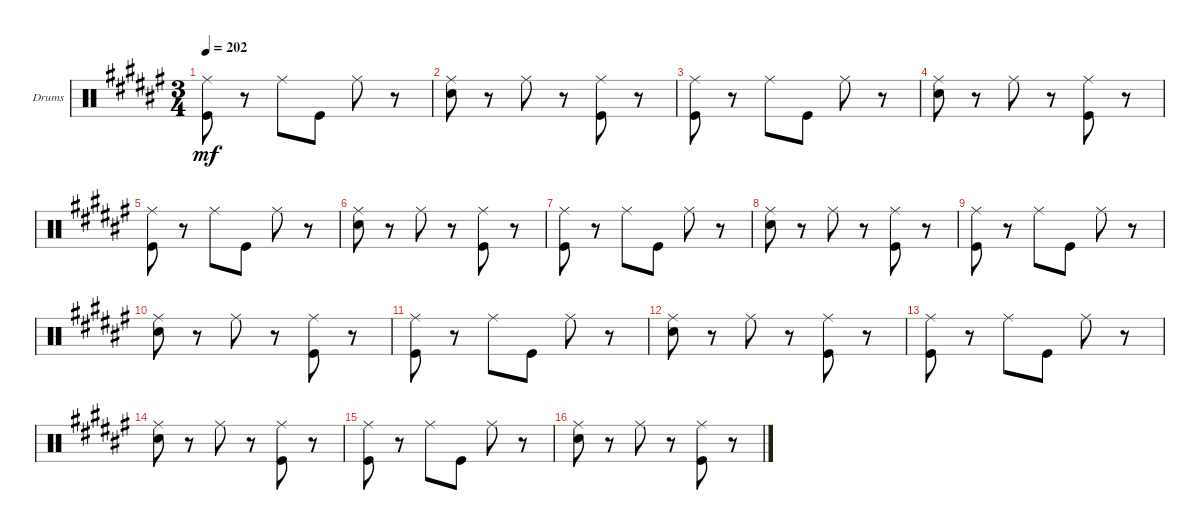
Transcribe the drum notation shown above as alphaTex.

\defaultSystemsLayout 4
\bracketExtendMode groupsimilarinstruments
\firstSystemTrackNameOrientation horizontal
\otherSystemsTrackNameOrientation horizontal
\track ("Drumkit" "Drums") {instrument percussion}
\staff {score}
\articulation defaults
\ts (3 4)
\tempo 202
\clef neutral
\ks f#
("Kick (hit)" "Ride (middle)").8{dy mf} r.8 "Ride (middle)".8 "Kick (hit)".8 "Ride (middle)".8 r.8 |
("Snare (hit) 2" "Ride (middle)").8 r.8 "Ride (middle)".8 r.8 ("Kick (hit)" "Ride (middle)").8 r.8 |
("Kick (hit)" "Ride (middle)").8 r.8 "Ride (middle)".8 "Kick (hit)".8 "Ride (middle)".8 r.8 |
("Snare (hit) 2" "Ride (middle)").8 r.8 "Ride (middle)".8 r.8 ("Kick (hit)" "Ride (middle)").8 r.8 |
("Kick (hit)" "Ride (middle)").8 r.8 "Ride (middle)".8 "Kick (hit)".8 "Ride (middle)".8 r.8 |
("Snare (hit) 2" "Ride (middle)").8 r.8 "Ride (middle)".8 r.8 ("Kick (hit)" "Ride (middle)").8 r.8 |
("Kick (hit)" "Ride (middle)").8 r.8 "Ride (middle)".8 "Kick (hit)".8 "Ride (middle)".8 r.8 |
("Snare (hit) 2" "Ride (middle)").8 r.8 "Ride (middle)".8 r.8 ("Kick (hit)" "Ride (middle)").8 r.8 |
("Kick (hit)" "Ride (middle)").8 r.8 "Ride (middle)".8 "Kick (hit)".8 "Ride (middle)".8 r.8 |
("Snare (hit) 2" "Ride (middle)").8 r.8 "Ride (middle)".8 r.8 ("Kick (hit)" "Ride (middle)").8 r.8 |
("Kick (hit)" "Ride (middle)").8 r.8 "Ride (middle)".8 "Kick (hit)".8 "Ride (middle)".8 r.8 |
("Snare (hit) 2" "Ride (middle)").8 r.8 "Ride (middle)".8 r.8 ("Kick (hit)" "Ride (middle)").8 r.8 |
("Kick (hit)" "Ride (middle)").8 r.8 "Ride (middle)".8 "Kick (hit)".8 "Ride (middle)".8 r.8 |
("Snare (hit) 2" "Ride (middle)").8 r.8 "Ride (middle)".8 r.8 ("Kick (hit)" "Ride (middle)").8 r.8 |
("Kick (hit)" "Ride (middle)").8 r.8 "Ride (middle)".8 "Kick (hit)".8 "Ride (middle)".8 r.8 |
("Snare (hit) 2" "Ride (middle)").8 r.8 "Ride (middle)".8 r.8 ("Kick (hit)" "Ride (middle)").8 r.8
